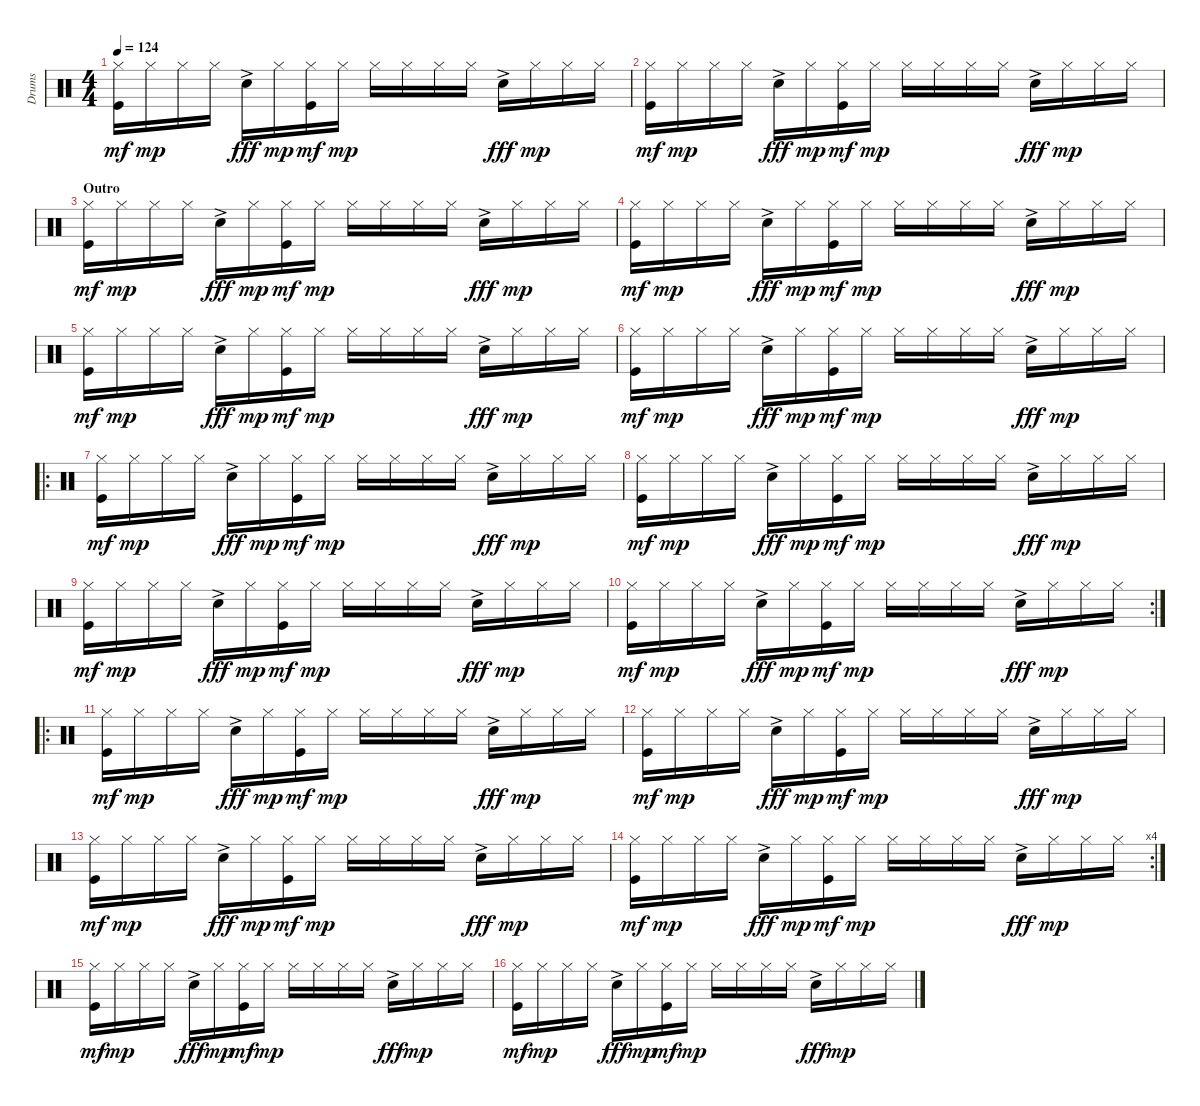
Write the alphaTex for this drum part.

\track ("Drums" "Drums") {instrument percussion}
\staff {score}
\articulation defaults
\ts (4 4)
\tempo 124
\clef neutral
\ks c
("Hi-Hat (closed)" "Kick (hit)").16{dy mf} "Hi-Hat (closed)".16{dy mp} "Hi-Hat (closed)".16 "Hi-Hat (closed)".16 "Snare (hit) 2"{ac}.16{dy fff} "Hi-Hat (closed)".16{dy mp} ("Hi-Hat (closed)" "Kick (hit)").16{dy mf} "Hi-Hat (closed)".16{dy mp} "Hi-Hat (closed)".16 "Hi-Hat (closed)".16 "Hi-Hat (closed)".16 "Hi-Hat (closed)".16 "Snare (hit) 2"{ac}.16{dy fff} "Hi-Hat (closed)".16{dy mp} "Hi-Hat (closed)".16 "Hi-Hat (closed)".16 |
("Hi-Hat (closed)" "Kick (hit)").16{dy mf} "Hi-Hat (closed)".16{dy mp} "Hi-Hat (closed)".16 "Hi-Hat (closed)".16 "Snare (hit) 2"{ac}.16{dy fff} "Hi-Hat (closed)".16{dy mp} ("Hi-Hat (closed)" "Kick (hit)").16{dy mf} "Hi-Hat (closed)".16{dy mp} "Hi-Hat (closed)".16 "Hi-Hat (closed)".16 "Hi-Hat (closed)".16 "Hi-Hat (closed)".16 "Snare (hit) 2"{ac}.16{dy fff} "Hi-Hat (closed)".16{dy mp} "Hi-Hat (closed)".16 "Hi-Hat (closed)".16 |
\section ("" "Outro")
("Hi-Hat (closed)" "Kick (hit)").16{dy mf} "Hi-Hat (closed)".16{dy mp} "Hi-Hat (closed)".16 "Hi-Hat (closed)".16 "Snare (hit) 2"{ac}.16{dy fff} "Hi-Hat (closed)".16{dy mp} ("Hi-Hat (closed)" "Kick (hit)").16{dy mf} "Hi-Hat (closed)".16{dy mp} "Hi-Hat (closed)".16 "Hi-Hat (closed)".16 "Hi-Hat (closed)".16 "Hi-Hat (closed)".16 "Snare (hit) 2"{ac}.16{dy fff} "Hi-Hat (closed)".16{dy mp} "Hi-Hat (closed)".16 "Hi-Hat (closed)".16 |
("Hi-Hat (closed)" "Kick (hit)").16{dy mf} "Hi-Hat (closed)".16{dy mp} "Hi-Hat (closed)".16 "Hi-Hat (closed)".16 "Snare (hit) 2"{ac}.16{dy fff} "Hi-Hat (closed)".16{dy mp} ("Hi-Hat (closed)" "Kick (hit)").16{dy mf} "Hi-Hat (closed)".16{dy mp} "Hi-Hat (closed)".16 "Hi-Hat (closed)".16 "Hi-Hat (closed)".16 "Hi-Hat (closed)".16 "Snare (hit) 2"{ac}.16{dy fff} "Hi-Hat (closed)".16{dy mp} "Hi-Hat (closed)".16 "Hi-Hat (closed)".16 |
("Hi-Hat (closed)" "Kick (hit)").16{dy mf} "Hi-Hat (closed)".16{dy mp} "Hi-Hat (closed)".16 "Hi-Hat (closed)".16 "Snare (hit) 2"{ac}.16{dy fff} "Hi-Hat (closed)".16{dy mp} ("Hi-Hat (closed)" "Kick (hit)").16{dy mf} "Hi-Hat (closed)".16{dy mp} "Hi-Hat (closed)".16 "Hi-Hat (closed)".16 "Hi-Hat (closed)".16 "Hi-Hat (closed)".16 "Snare (hit) 2"{ac}.16{dy fff} "Hi-Hat (closed)".16{dy mp} "Hi-Hat (closed)".16 "Hi-Hat (closed)".16 |
("Hi-Hat (closed)" "Kick (hit)").16{dy mf} "Hi-Hat (closed)".16{dy mp} "Hi-Hat (closed)".16 "Hi-Hat (closed)".16 "Snare (hit) 2"{ac}.16{dy fff} "Hi-Hat (closed)".16{dy mp} ("Hi-Hat (closed)" "Kick (hit)").16{dy mf} "Hi-Hat (closed)".16{dy mp} "Hi-Hat (closed)".16 "Hi-Hat (closed)".16 "Hi-Hat (closed)".16 "Hi-Hat (closed)".16 "Snare (hit) 2"{ac}.16{dy fff} "Hi-Hat (closed)".16{dy mp} "Hi-Hat (closed)".16 "Hi-Hat (closed)".16 |
\ro
("Hi-Hat (closed)" "Kick (hit)").16{dy mf} "Hi-Hat (closed)".16{dy mp} "Hi-Hat (closed)".16 "Hi-Hat (closed)".16 "Snare (hit) 2"{ac}.16{dy fff} "Hi-Hat (closed)".16{dy mp} ("Hi-Hat (closed)" "Kick (hit)").16{dy mf} "Hi-Hat (closed)".16{dy mp} "Hi-Hat (closed)".16 "Hi-Hat (closed)".16 "Hi-Hat (closed)".16 "Hi-Hat (closed)".16 "Snare (hit) 2"{ac}.16{dy fff} "Hi-Hat (closed)".16{dy mp} "Hi-Hat (closed)".16 "Hi-Hat (closed)".16 |
("Hi-Hat (closed)" "Kick (hit)").16{dy mf} "Hi-Hat (closed)".16{dy mp} "Hi-Hat (closed)".16 "Hi-Hat (closed)".16 "Snare (hit) 2"{ac}.16{dy fff} "Hi-Hat (closed)".16{dy mp} ("Hi-Hat (closed)" "Kick (hit)").16{dy mf} "Hi-Hat (closed)".16{dy mp} "Hi-Hat (closed)".16 "Hi-Hat (closed)".16 "Hi-Hat (closed)".16 "Hi-Hat (closed)".16 "Snare (hit) 2"{ac}.16{dy fff} "Hi-Hat (closed)".16{dy mp} "Hi-Hat (closed)".16 "Hi-Hat (closed)".16 |
("Hi-Hat (closed)" "Kick (hit)").16{dy mf} "Hi-Hat (closed)".16{dy mp} "Hi-Hat (closed)".16 "Hi-Hat (closed)".16 "Snare (hit) 2"{ac}.16{dy fff} "Hi-Hat (closed)".16{dy mp} ("Hi-Hat (closed)" "Kick (hit)").16{dy mf} "Hi-Hat (closed)".16{dy mp} "Hi-Hat (closed)".16 "Hi-Hat (closed)".16 "Hi-Hat (closed)".16 "Hi-Hat (closed)".16 "Snare (hit) 2"{ac}.16{dy fff} "Hi-Hat (closed)".16{dy mp} "Hi-Hat (closed)".16 "Hi-Hat (closed)".16 |
\rc 2
("Hi-Hat (closed)" "Kick (hit)").16{dy mf} "Hi-Hat (closed)".16{dy mp} "Hi-Hat (closed)".16 "Hi-Hat (closed)".16 "Snare (hit) 2"{ac}.16{dy fff} "Hi-Hat (closed)".16{dy mp} ("Hi-Hat (closed)" "Kick (hit)").16{dy mf} "Hi-Hat (closed)".16{dy mp} "Hi-Hat (closed)".16 "Hi-Hat (closed)".16 "Hi-Hat (closed)".16 "Hi-Hat (closed)".16 "Snare (hit) 2"{ac}.16{dy fff} "Hi-Hat (closed)".16{dy mp} "Hi-Hat (closed)".16 "Hi-Hat (closed)".16 |
\ro
("Hi-Hat (closed)" "Kick (hit)").16{dy mf} "Hi-Hat (closed)".16{dy mp} "Hi-Hat (closed)".16 "Hi-Hat (closed)".16 "Snare (hit) 2"{ac}.16{dy fff} "Hi-Hat (closed)".16{dy mp} ("Hi-Hat (closed)" "Kick (hit)").16{dy mf} "Hi-Hat (closed)".16{dy mp} "Hi-Hat (closed)".16 "Hi-Hat (closed)".16 "Hi-Hat (closed)".16 "Hi-Hat (closed)".16 "Snare (hit) 2"{ac}.16{dy fff} "Hi-Hat (closed)".16{dy mp} "Hi-Hat (closed)".16 "Hi-Hat (closed)".16 |
("Hi-Hat (closed)" "Kick (hit)").16{dy mf} "Hi-Hat (closed)".16{dy mp} "Hi-Hat (closed)".16 "Hi-Hat (closed)".16 "Snare (hit) 2"{ac}.16{dy fff} "Hi-Hat (closed)".16{dy mp} ("Hi-Hat (closed)" "Kick (hit)").16{dy mf} "Hi-Hat (closed)".16{dy mp} "Hi-Hat (closed)".16 "Hi-Hat (closed)".16 "Hi-Hat (closed)".16 "Hi-Hat (closed)".16 "Snare (hit) 2"{ac}.16{dy fff} "Hi-Hat (closed)".16{dy mp} "Hi-Hat (closed)".16 "Hi-Hat (closed)".16 |
("Hi-Hat (closed)" "Kick (hit)").16{dy mf} "Hi-Hat (closed)".16{dy mp} "Hi-Hat (closed)".16 "Hi-Hat (closed)".16 "Snare (hit) 2"{ac}.16{dy fff} "Hi-Hat (closed)".16{dy mp} ("Hi-Hat (closed)" "Kick (hit)").16{dy mf} "Hi-Hat (closed)".16{dy mp} "Hi-Hat (closed)".16 "Hi-Hat (closed)".16 "Hi-Hat (closed)".16 "Hi-Hat (closed)".16 "Snare (hit) 2"{ac}.16{dy fff} "Hi-Hat (closed)".16{dy mp} "Hi-Hat (closed)".16 "Hi-Hat (closed)".16 |
\rc 4
("Hi-Hat (closed)" "Kick (hit)").16{dy mf} "Hi-Hat (closed)".16{dy mp} "Hi-Hat (closed)".16 "Hi-Hat (closed)".16 "Snare (hit) 2"{ac}.16{dy fff} "Hi-Hat (closed)".16{dy mp} ("Hi-Hat (closed)" "Kick (hit)").16{dy mf} "Hi-Hat (closed)".16{dy mp} "Hi-Hat (closed)".16 "Hi-Hat (closed)".16 "Hi-Hat (closed)".16 "Hi-Hat (closed)".16 "Snare (hit) 2"{ac}.16{dy fff} "Hi-Hat (closed)".16{dy mp} "Hi-Hat (closed)".16 "Hi-Hat (closed)".16 |
("Hi-Hat (closed)" "Kick (hit)").16{dy mf} "Hi-Hat (closed)".16{dy mp} "Hi-Hat (closed)".16 "Hi-Hat (closed)".16 "Snare (hit) 2"{ac}.16{dy fff} "Hi-Hat (closed)".16{dy mp} ("Hi-Hat (closed)" "Kick (hit)").16{dy mf} "Hi-Hat (closed)".16{dy mp} "Hi-Hat (closed)".16 "Hi-Hat (closed)".16 "Hi-Hat (closed)".16 "Hi-Hat (closed)".16 "Snare (hit) 2"{ac}.16{dy fff} "Hi-Hat (closed)".16{dy mp} "Hi-Hat (closed)".16 "Hi-Hat (closed)".16 |
("Hi-Hat (closed)" "Kick (hit)").16{dy mf} "Hi-Hat (closed)".16{dy mp} "Hi-Hat (closed)".16 "Hi-Hat (closed)".16 "Snare (hit) 2"{ac}.16{dy fff} "Hi-Hat (closed)".16{dy mp} ("Hi-Hat (closed)" "Kick (hit)").16{dy mf} "Hi-Hat (closed)".16{dy mp} "Hi-Hat (closed)".16 "Hi-Hat (closed)".16 "Hi-Hat (closed)".16 "Hi-Hat (closed)".16 "Snare (hit) 2"{ac}.16{dy fff} "Hi-Hat (closed)".16{dy mp} "Hi-Hat (closed)".16 "Hi-Hat (closed)".16
